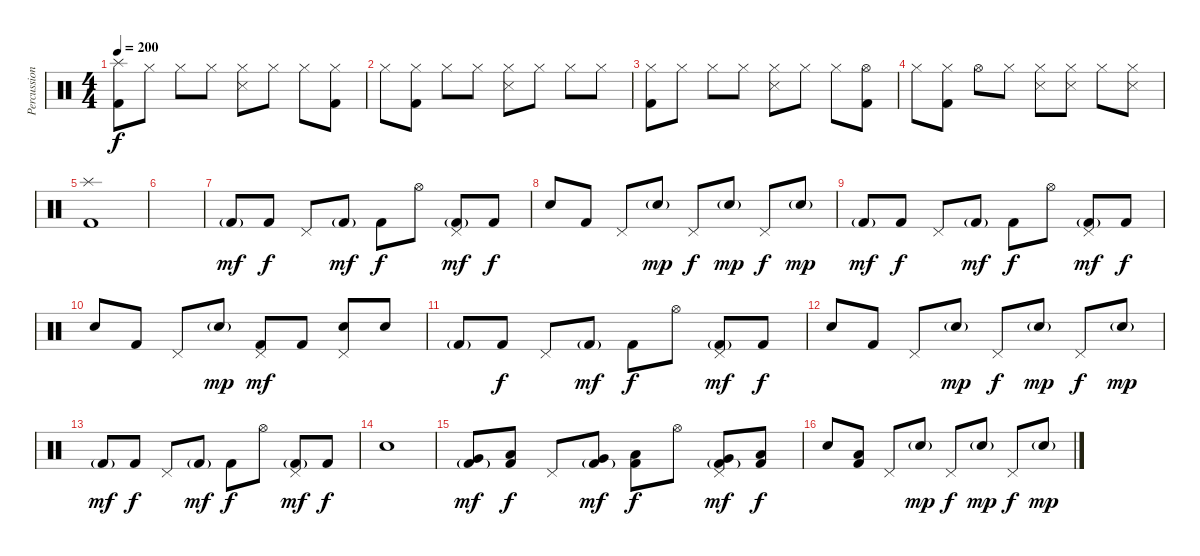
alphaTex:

\track ("Percussion" "Percussion") {instrument percussion}
\staff {score}
\articulation defaults
\ts (4 4)
\tempo 200
\clef neutral
\ks c
("Splash (hit)" "Kick (hit) 2").8{dy f} "Hi-Hat (closed)".8 "Hi-Hat (closed)".8 "Hi-Hat (closed)".8 ("Hi-Hat (closed)" "Snare (side stick) 3").8 "Hi-Hat (closed)".8 "Hi-Hat (closed)".8 ("Hi-Hat (closed)" "Kick (hit) 2").8 |
"Hi-Hat (closed)".8 ("Hi-Hat (closed)" "Kick (hit) 2").8 "Hi-Hat (closed)".8 "Hi-Hat (closed)".8 ("Hi-Hat (closed)" "Snare (side stick) 3").8 "Hi-Hat (closed)".8 "Hi-Hat (closed)".8 "Hi-Hat (closed)".8 |
("Hi-Hat (closed)" "Kick (hit) 2").8 "Hi-Hat (closed)".8 "Hi-Hat (closed)".8 "Hi-Hat (closed)".8 ("Hi-Hat (closed)" "Snare (side stick) 3").8 "Hi-Hat (closed)".8 "Hi-Hat (closed)".8 ("Hi-Hat (open)" "Kick (hit) 2").8 |
"Hi-Hat (closed)".8 ("Hi-Hat (closed)" "Kick (hit) 2").8 "Hi-Hat (open)".8 "Hi-Hat (closed)".8 ("Hi-Hat (closed)" "Snare (side stick) 3").8 ("Hi-Hat (closed)" "Snare (side stick) 3").8 "Hi-Hat (closed)".8 ("Hi-Hat (closed)" "Snare (side stick) 3").8 |
("Splash (hit)" "Kick (hit) 2").1 |
|
"Kick (hit) 2"{g}.8{dy mf} "Kick (hit) 2".8{dy f} "Pedal Hi-Hat (hit)".8 "Kick (hit) 2"{g}.8{dy mf} "Kick (hit) 2".8{dy f} "Hi-Hat (open)".8 ("Pedal Hi-Hat (hit)" "Kick (hit) 2"{g}).8{dy mf} "Kick (hit) 2".8{dy f} |
"Electric Snare (hit)".8 "Kick (hit) 2".8 "Pedal Hi-Hat (hit)".8 "Electric Snare (hit)"{g}.8{dy mp} "Pedal Hi-Hat (hit)".8{dy f} "Electric Snare (hit)"{g}.8{dy mp} "Pedal Hi-Hat (hit)".8{dy f} "Electric Snare (hit)"{g}.8{dy mp} |
"Kick (hit) 2"{g}.8{dy mf} "Kick (hit) 2".8{dy f} "Pedal Hi-Hat (hit)".8 "Kick (hit) 2"{g}.8{dy mf} "Kick (hit) 2".8{dy f} "Hi-Hat (open)".8 ("Pedal Hi-Hat (hit)" "Kick (hit) 2"{g}).8{dy mf} "Kick (hit) 2".8{dy f} |
"Electric Snare (hit)".8 "Kick (hit) 2".8 "Pedal Hi-Hat (hit)".8 "Electric Snare (hit)"{g}.8{dy mp} ("Pedal Hi-Hat (hit)" "Kick (hit) 2").8{dy mf} "Kick (hit) 2".8 ("Pedal Hi-Hat (hit)" "Electric Snare (hit)").8 "Electric Snare (hit)".8 |
"Kick (hit) 2"{g}.8 "Kick (hit) 2".8{dy f} "Pedal Hi-Hat (hit)".8 "Kick (hit) 2"{g}.8{dy mf} "Kick (hit) 2".8{dy f} "Hi-Hat (open)".8 ("Pedal Hi-Hat (hit)" "Kick (hit) 2"{g}).8{dy mf} "Kick (hit) 2".8{dy f} |
"Electric Snare (hit)".8 "Kick (hit) 2".8 "Pedal Hi-Hat (hit)".8 "Electric Snare (hit)"{g}.8{dy mp} "Pedal Hi-Hat (hit)".8{dy f} "Electric Snare (hit)"{g}.8{dy mp} "Pedal Hi-Hat (hit)".8{dy f} "Electric Snare (hit)"{g}.8{dy mp} |
"Kick (hit) 2"{g}.8{dy mf} "Kick (hit) 2".8{dy f} "Pedal Hi-Hat (hit)".8 "Kick (hit) 2"{g}.8{dy mf} "Kick (hit) 2".8{dy f} "Hi-Hat (open)".8 ("Pedal Hi-Hat (hit)" "Kick (hit) 2"{g}).8{dy mf} "Kick (hit) 2".8{dy f} |
"Electric Snare (hit)".1 |
("Very Low Tom (hit)" "Kick (hit) 2"{g}).8{dy mf} ("Low Floor Tom (hit)" "Kick (hit) 2").8{dy f} "Pedal Hi-Hat (hit)".8 ("Very Low Tom (hit)" "Kick (hit) 2"{g}).8{dy mf} ("Low Floor Tom (hit)" "Kick (hit) 2").8{dy f} "Hi-Hat (open)".8 ("Pedal Hi-Hat (hit)" "Very Low Tom (hit)" "Kick (hit) 2"{g}).8{dy mf} ("Low Floor Tom (hit)" "Kick (hit) 2").8{dy f} |
"Electric Snare (hit)".8 ("Low Floor Tom (hit)" "Kick (hit) 2").8 "Pedal Hi-Hat (hit)".8 "Electric Snare (hit)"{g}.8{dy mp} "Pedal Hi-Hat (hit)".8{dy f} "Electric Snare (hit)"{g}.8{dy mp} "Pedal Hi-Hat (hit)".8{dy f} "Electric Snare (hit)"{g}.8{dy mp}
